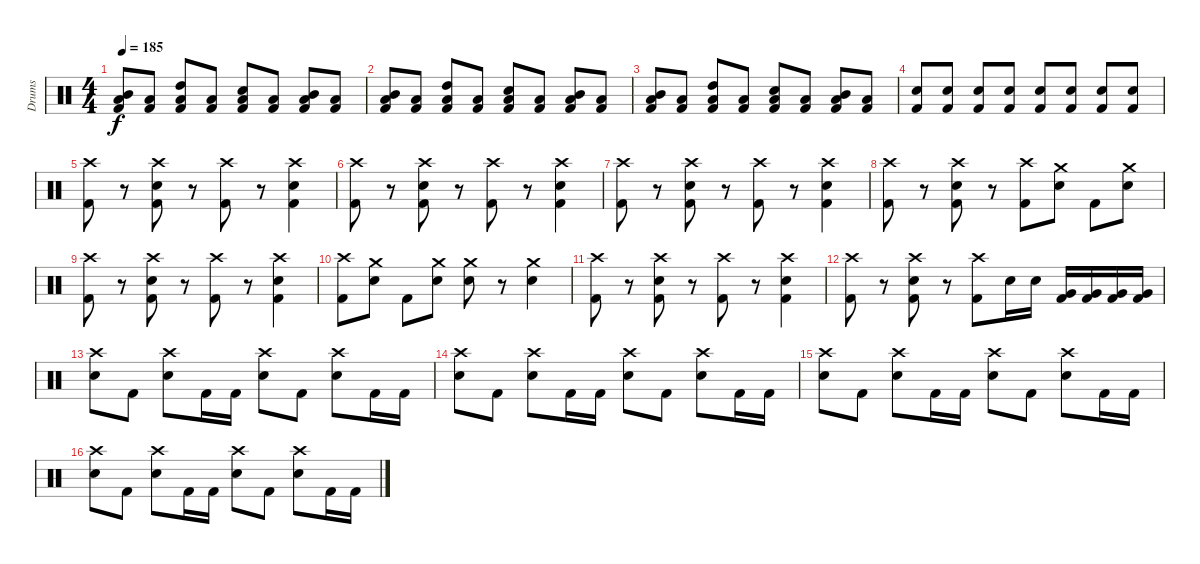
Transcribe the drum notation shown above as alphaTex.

\track ("Drums" "Drums") {instrument percussion}
\staff {score}
\articulation defaults
\ts (4 4)
\tempo 185
\clef neutral
\ks c
("Low Tom (hit)" "Mid Tom (hit)" "Kick (hit) 2").8{dy f} ("Low Tom (hit)" "Kick (hit) 2").8 ("Low Tom (hit)" "High Tom (hit)" "Kick (hit) 2").8 ("Low Tom (hit)" "Kick (hit) 2").8 ("Low Tom (hit)" "Snare (hit) 2" "Kick (hit) 2").8 ("Low Tom (hit)" "Kick (hit) 2").8 ("Low Tom (hit)" "Mid Tom (hit)" "Kick (hit) 2").8 ("Low Tom (hit)" "Kick (hit) 2").8 |
("Low Tom (hit)" "Mid Tom (hit)" "Kick (hit) 2").8 ("Low Tom (hit)" "Kick (hit) 2").8 ("Low Tom (hit)" "High Tom (hit)" "Kick (hit) 2").8 ("Low Tom (hit)" "Kick (hit) 2").8 ("Low Tom (hit)" "Snare (hit) 2" "Kick (hit) 2").8 ("Low Tom (hit)" "Kick (hit) 2").8 ("Low Tom (hit)" "Mid Tom (hit)" "Kick (hit) 2").8 ("Low Tom (hit)" "Kick (hit) 2").8 |
("Low Tom (hit)" "Mid Tom (hit)" "Kick (hit) 2").8 ("Low Tom (hit)" "Kick (hit) 2").8 ("Low Tom (hit)" "High Tom (hit)" "Kick (hit) 2").8 ("Low Tom (hit)" "Kick (hit) 2").8 ("Low Tom (hit)" "Snare (hit) 2" "Kick (hit) 2").8 ("Low Tom (hit)" "Kick (hit) 2").8 ("Low Tom (hit)" "Mid Tom (hit)" "Kick (hit) 2").8 ("Low Tom (hit)" "Kick (hit) 2").8 |
("Snare (hit) 2" "Kick (hit) 2").8 ("Snare (hit) 2" "Kick (hit) 2").8 ("Snare (hit) 2" "Kick (hit) 2").8 ("Snare (hit) 2" "Kick (hit) 2").8 ("Snare (hit) 2" "Kick (hit) 2").8 ("Snare (hit) 2" "Kick (hit) 2").8 ("Snare (hit) 2" "Kick (hit) 2").8 ("Snare (hit) 2" "Kick (hit) 2").8 |
("Crash high (hit)" "Kick (hit) 2").8 r.8 ("Crash high (hit)" "Snare (hit) 2" "Kick (hit) 2").8 r.8 ("Crash high (hit)" "Kick (hit) 2").8 r.8 ("Crash high (hit)" "Snare (hit) 2" "Kick (hit) 2").4 |
("Crash high (hit)" "Kick (hit) 2").8 r.8 ("Crash high (hit)" "Snare (hit) 2" "Kick (hit) 2").8 r.8 ("Crash high (hit)" "Kick (hit) 2").8 r.8 ("Crash high (hit)" "Snare (hit) 2" "Kick (hit) 2").4 |
("Crash high (hit)" "Kick (hit) 2").8 r.8 ("Crash high (hit)" "Snare (hit) 2" "Kick (hit) 2").8 r.8 ("Crash high (hit)" "Kick (hit) 2").8 r.8 ("Crash high (hit)" "Snare (hit) 2" "Kick (hit) 2").4 |
("Crash high (hit)" "Kick (hit) 2").8 r.8 ("Crash high (hit)" "Snare (hit) 2" "Kick (hit) 2").8 r.8 ("Crash high (hit)" "Kick (hit) 2").8 ("Crash medium (hit)" "Snare (hit) 2").8 "Kick (hit) 2".8 ("Crash medium (hit)" "Snare (hit) 2").8 |
("Crash high (hit)" "Kick (hit) 2").8 r.8 ("Crash high (hit)" "Snare (hit) 2" "Kick (hit) 2").8 r.8 ("Crash high (hit)" "Kick (hit) 2").8 r.8 ("Crash high (hit)" "Snare (hit) 2" "Kick (hit) 2").4 |
("Crash high (hit)" "Kick (hit) 2").8 ("Crash medium (hit)" "Snare (hit) 2").8 "Kick (hit) 2".8 ("Crash medium (hit)" "Snare (hit) 2").8 ("Crash medium (hit)" "Snare (hit) 2").8 r.8 ("Crash medium (hit)" "Snare (hit) 2").4 |
("Crash high (hit)" "Kick (hit) 2").8 r.8 ("Crash high (hit)" "Snare (hit) 2" "Kick (hit) 2").8 r.8 ("Crash high (hit)" "Kick (hit) 2").8 r.8 ("Crash high (hit)" "Snare (hit) 2" "Kick (hit) 2").4 |
("Crash high (hit)" "Kick (hit) 2").8 r.8 ("Crash high (hit)" "Snare (hit) 2" "Kick (hit) 2").8 r.8 ("Crash high (hit)" "Kick (hit) 2").8 "Snare (hit) 2".16 "Snare (hit) 2".16 ("Very Low Tom (hit)" "Kick (hit) 2").16 ("Very Low Tom (hit)" "Kick (hit) 2").16 ("Very Low Tom (hit)" "Kick (hit) 2").16 ("Very Low Tom (hit)" "Kick (hit) 2").16 |
("Crash high (hit)" "Snare (hit) 2").8 "Kick (hit) 2".8 ("Crash high (hit)" "Snare (hit) 2").8 "Kick (hit) 2".16 "Kick (hit) 2".16 ("Crash high (hit)" "Snare (hit) 2").8 "Kick (hit) 2".8 ("Crash high (hit)" "Snare (hit) 2").8 "Kick (hit) 2".16 "Kick (hit) 2".16 |
("Crash high (hit)" "Snare (hit) 2").8 "Kick (hit) 2".8 ("Crash high (hit)" "Snare (hit) 2").8 "Kick (hit) 2".16 "Kick (hit) 2".16 ("Crash high (hit)" "Snare (hit) 2").8 "Kick (hit) 2".8 ("Crash high (hit)" "Snare (hit) 2").8 "Kick (hit) 2".16 "Kick (hit) 2".16 |
("Crash high (hit)" "Snare (hit) 2").8 "Kick (hit) 2".8 ("Crash high (hit)" "Snare (hit) 2").8 "Kick (hit) 2".16 "Kick (hit) 2".16 ("Crash high (hit)" "Snare (hit) 2").8 "Kick (hit) 2".8 ("Crash high (hit)" "Snare (hit) 2").8 "Kick (hit) 2".16 "Kick (hit) 2".16 |
("Crash high (hit)" "Snare (hit) 2").8 "Kick (hit) 2".8 ("Crash high (hit)" "Snare (hit) 2").8 "Kick (hit) 2".16 "Kick (hit) 2".16 ("Crash high (hit)" "Snare (hit) 2").8 "Kick (hit) 2".8 ("Crash high (hit)" "Snare (hit) 2").8 "Kick (hit) 2".16 "Kick (hit) 2".16
